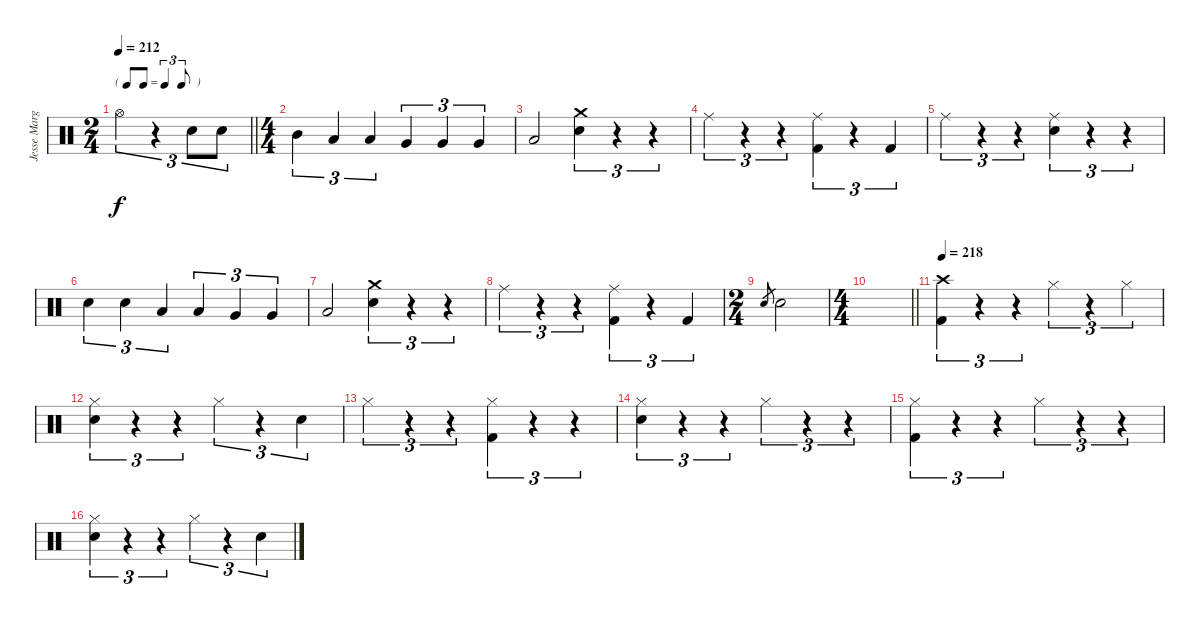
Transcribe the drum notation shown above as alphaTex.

\track ("Jesse Margera" "Jesse Marg") {instrument percussion}
\staff {score}
\articulation defaults
\ts (2 4)
\tf triplet8th
\tempo 212
\clef neutral
\barLineRight lightlight
\ks c "Hi-Hat (open)".4{tu (3 2) dy f}
r.4{tu (3 2)} "Electric Snare (hit)".8{tu (3 2)} "Electric Snare (hit)".8{tu (3 2)} |
\ts (4 4)
\section ("" "")
"Mid Tom (hit)".4{tu (3 2)} "Low Tom (hit)".4{tu (3 2)} "Low Tom (hit)".4{tu (3 2)} "Very Low Tom (hit)".4{tu (3 2)} "Very Low Tom (hit)".4{tu (3 2)} "Very Low Tom (hit)".4{tu (3 2)} |
"Low Floor Tom (hit)".2 ("Crash medium (hit)" "Electric Snare (hit)").4{tu (3 2)} r.4{tu (3 2)} r.4{tu (3 2)} |
"Ride (middle)".4{tu (3 2)} r.4{tu (3 2)} r.4{tu (3 2)} ("Ride (middle)" "Kick (hit) 2").4{tu (3 2)} r.4{tu (3 2)} "Kick (hit) 2".4{tu (3 2)} |
"Ride (middle)".4{tu (3 2)} r.4{tu (3 2)} r.4{tu (3 2)} ("Ride (middle)" "Electric Snare (hit)").4{tu (3 2)} r.4{tu (3 2)} r.4{tu (3 2)} |
"Electric Snare (hit)".4{tu (3 2)} "Electric Snare (hit)".4{tu (3 2)} "Low Tom (hit)".4{tu (3 2)} "Low Tom (hit)".4{tu (3 2)} "Very Low Tom (hit)".4{tu (3 2)} "Very Low Tom (hit)".4{tu (3 2)} |
"Low Floor Tom (hit)".2 ("Crash medium (hit)" "Electric Snare (hit)").4{tu (3 2)} r.4{tu (3 2)} r.4{tu (3 2)} |
"Ride (middle)".4{tu (3 2)} r.4{tu (3 2)} r.4{tu (3 2)} ("Ride (middle)" "Kick (hit) 2").4{tu (3 2)} r.4{tu (3 2)} "Kick (hit) 2".4{tu (3 2)} |
\ts (2 4)
"Electric Snare (hit)".8{gr} "Electric Snare (hit)".2 |
\ts (4 4)
\barLineRight lightlight
|
\section ("" "")
\tempo 218
("Crash high (hit)" "Kick (hit) 2").4{tu (3 2)} r.4{tu (3 2)} r.4{tu (3 2)} "Hi-Hat (closed)".4{tu (3 2)} r.4{tu (3 2)} "Hi-Hat (closed)".4{tu (3 2)} |
("Hi-Hat (closed)" "Electric Snare (hit)").4{tu (3 2)} r.4{tu (3 2)} r.4{tu (3 2)} "Hi-Hat (closed)".4{tu (3 2)} r.4{tu (3 2)} "Electric Snare (hit)".4{tu (3 2)} |
"Hi-Hat (closed)".4{tu (3 2)} r.4{tu (3 2)} r.4{tu (3 2)} ("Hi-Hat (closed)" "Kick (hit) 2").4{tu (3 2)} r.4{tu (3 2)} r.4{tu (3 2)} |
("Hi-Hat (closed)" "Electric Snare (hit)").4{tu (3 2)} r.4{tu (3 2)} r.4{tu (3 2)} "Hi-Hat (closed)".4{tu (3 2)} r.4{tu (3 2)} r.4{tu (3 2)} |
("Hi-Hat (closed)" "Kick (hit) 2").4{tu (3 2)} r.4{tu (3 2)} r.4{tu (3 2)} "Hi-Hat (closed)".4{tu (3 2)} r.4{tu (3 2)} r.4{tu (3 2)} |
("Hi-Hat (closed)" "Electric Snare (hit)").4{tu (3 2)} r.4{tu (3 2)} r.4{tu (3 2)} "Hi-Hat (closed)".4{tu (3 2)} r.4{tu (3 2)} "Electric Snare (hit)".4{tu (3 2)}
